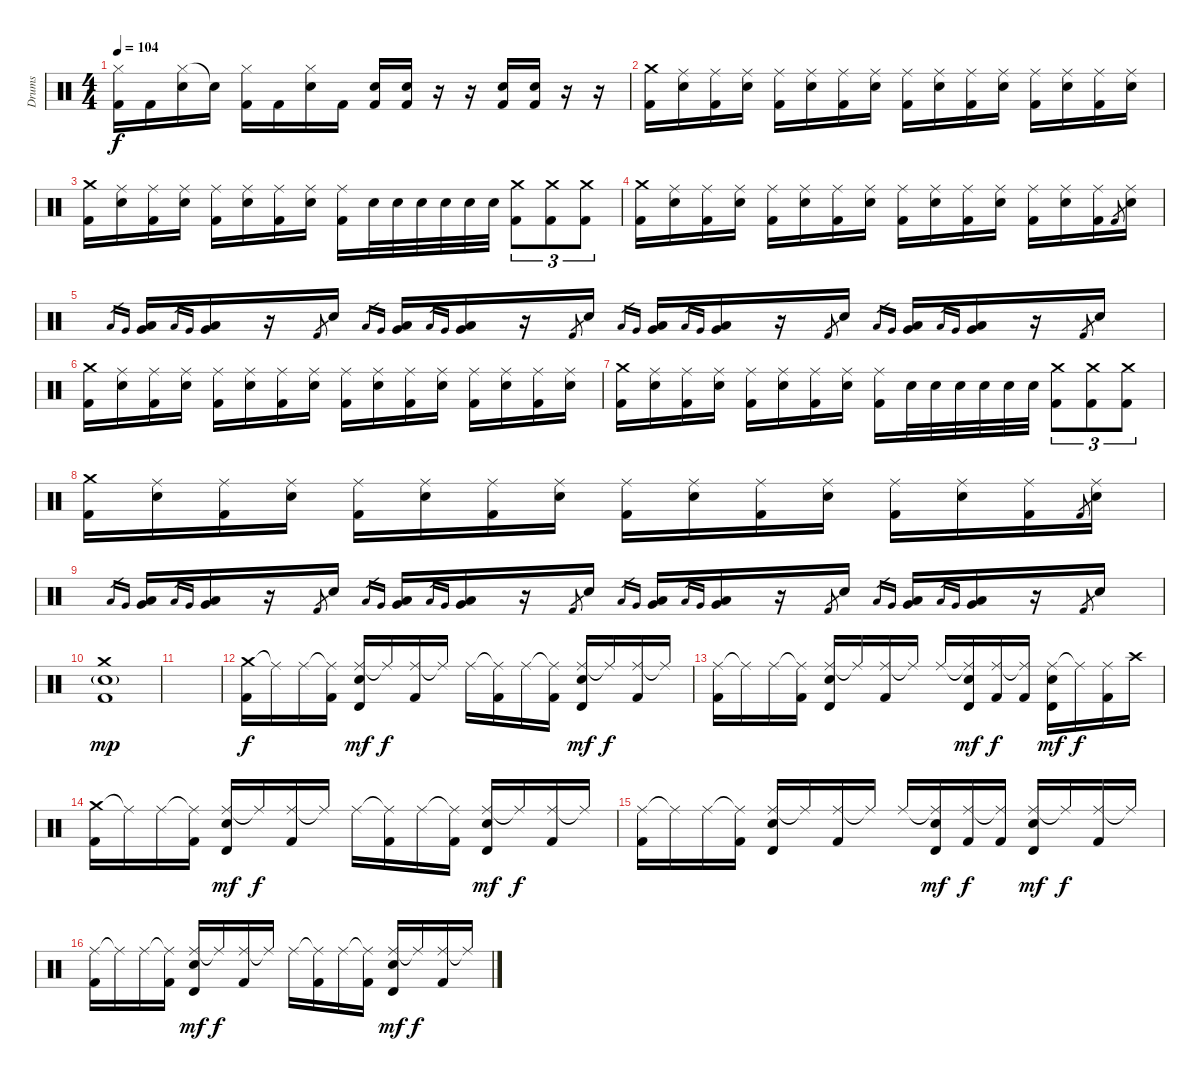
\track ("Drums" "Drums") {instrument percussion}
\staff {score}
\articulation defaults
\ts (4 4)
\tempo 104
\clef neutral
\ks c
("Hi-Hat (closed)" "Kick (hit) 2").16{dy f} "Kick (hit) 2".16 ("Hi-Hat (closed)" "Electric Snare (hit)").16 "Electric Snare (hit)"{t}.16 ("Hi-Hat (closed)" "Kick (hit) 2").16 "Kick (hit) 2".16 ("Hi-Hat (closed)" "Electric Snare (hit)").16 "Kick (hit) 2".16 ("Electric Snare (hit)" "Kick (hit) 2").16 ("Electric Snare (hit)" "Kick (hit) 2").16 r.16 r.16 ("Electric Snare (hit)" "Kick (hit) 2").16 ("Electric Snare (hit)" "Kick (hit) 2").16 r.16 r.16 |
("Crash medium (hit)" "Kick (hit) 2").16 ("Ride (middle)" "Electric Snare (hit)").16 ("Ride (middle)" "Kick (hit) 2").16 ("Ride (middle)" "Electric Snare (hit)").16 ("Ride (middle)" "Kick (hit) 2").16 ("Ride (middle)" "Electric Snare (hit)").16 ("Ride (middle)" "Kick (hit) 2").16 ("Ride (middle)" "Electric Snare (hit)").16 ("Ride (middle)" "Kick (hit) 2").16 ("Ride (middle)" "Electric Snare (hit)").16 ("Ride (middle)" "Kick (hit) 2").16 ("Ride (middle)" "Electric Snare (hit)").16 ("Ride (middle)" "Kick (hit) 2").16 ("Ride (middle)" "Electric Snare (hit)").16 ("Ride (middle)" "Kick (hit) 2").16 ("Ride (middle)" "Electric Snare (hit)").16 |
("Crash medium (hit)" "Kick (hit) 2").16 ("Ride (middle)" "Electric Snare (hit)").16 ("Ride (middle)" "Kick (hit) 2").16 ("Ride (middle)" "Electric Snare (hit)").16 ("Ride (middle)" "Kick (hit) 2").16 ("Ride (middle)" "Electric Snare (hit)").16 ("Ride (middle)" "Kick (hit) 2").16 ("Ride (middle)" "Electric Snare (hit)").16 ("Ride (middle)" "Kick (hit) 2").16 "Electric Snare (hit)".32 "Electric Snare (hit)".32 "Electric Snare (hit)".32 "Electric Snare (hit)".32 "Electric Snare (hit)".32 "Electric Snare (hit)".32 ("Crash medium (hit)" "Kick (hit) 2").8{tu (3 2)} ("Crash medium (hit)" "Kick (hit) 2").8{tu (3 2)} ("Crash medium (hit)" "Kick (hit) 2").8{tu (3 2)} |
("Crash medium (hit)" "Kick (hit) 2").16 ("Ride (middle)" "Electric Snare (hit)").16 ("Ride (middle)" "Kick (hit) 2").16 ("Ride (middle)" "Electric Snare (hit)").16 ("Ride (middle)" "Kick (hit) 2").16 ("Ride (middle)" "Electric Snare (hit)").16 ("Ride (middle)" "Kick (hit) 2").16 ("Ride (middle)" "Electric Snare (hit)").16 ("Ride (middle)" "Kick (hit) 2").16 ("Ride (middle)" "Electric Snare (hit)").16 ("Ride (middle)" "Kick (hit) 2").16 ("Ride (middle)" "Electric Snare (hit)").16 ("Ride (middle)" "Kick (hit) 2").16 ("Ride (middle)" "Electric Snare (hit)").16 ("Ride (middle)" "Kick (hit) 2").16 "Kick (hit) 2".8{gr} ("Ride (middle)" "Electric Snare (hit)").16 |
"Low Floor Tom (hit)".16{gr} "Very Low Tom (hit)".16{gr} ("Very Low Tom (hit)" "Low Tom (hit)").16 "Low Floor Tom (hit)".16{gr} "Very Low Tom (hit)".16{gr} ("Very Low Tom (hit)" "Low Tom (hit)").16 r.16 "Kick (hit) 2".8{gr} "Electric Snare (hit)".16 "Low Floor Tom (hit)".16{gr} "Very Low Tom (hit)".16{gr} ("Very Low Tom (hit)" "Low Tom (hit)").16 "Low Floor Tom (hit)".16{gr} "Very Low Tom (hit)".16{gr} ("Very Low Tom (hit)" "Low Tom (hit)").16 r.16 "Kick (hit) 2".8{gr} "Electric Snare (hit)".16 "Low Floor Tom (hit)".16{gr} "Very Low Tom (hit)".16{gr} ("Very Low Tom (hit)" "Low Tom (hit)").16 "Low Floor Tom (hit)".16{gr} "Very Low Tom (hit)".16{gr} ("Very Low Tom (hit)" "Low Tom (hit)").16 r.16 "Kick (hit) 2".8{gr} "Electric Snare (hit)".16 "Low Floor Tom (hit)".16{gr} "Very Low Tom (hit)".16{gr} ("Very Low Tom (hit)" "Low Tom (hit)").16 "Low Floor Tom (hit)".16{gr} "Very Low Tom (hit)".16{gr} ("Very Low Tom (hit)" "Low Tom (hit)").16 r.16 "Kick (hit) 2".8{gr} "Electric Snare (hit)".16 |
("Crash medium (hit)" "Kick (hit) 2").16 ("Ride (middle)" "Electric Snare (hit)").16 ("Ride (middle)" "Kick (hit) 2").16 ("Ride (middle)" "Electric Snare (hit)").16 ("Ride (middle)" "Kick (hit) 2").16 ("Ride (middle)" "Electric Snare (hit)").16 ("Ride (middle)" "Kick (hit) 2").16 ("Ride (middle)" "Electric Snare (hit)").16 ("Ride (middle)" "Kick (hit) 2").16 ("Ride (middle)" "Electric Snare (hit)").16 ("Ride (middle)" "Kick (hit) 2").16 ("Ride (middle)" "Electric Snare (hit)").16 ("Ride (middle)" "Kick (hit) 2").16 ("Ride (middle)" "Electric Snare (hit)").16 ("Ride (middle)" "Kick (hit) 2").16 ("Ride (middle)" "Electric Snare (hit)").16 |
("Crash medium (hit)" "Kick (hit) 2").16 ("Ride (middle)" "Electric Snare (hit)").16 ("Ride (middle)" "Kick (hit) 2").16 ("Ride (middle)" "Electric Snare (hit)").16 ("Ride (middle)" "Kick (hit) 2").16 ("Ride (middle)" "Electric Snare (hit)").16 ("Ride (middle)" "Kick (hit) 2").16 ("Ride (middle)" "Electric Snare (hit)").16 ("Ride (middle)" "Kick (hit) 2").16 "Electric Snare (hit)".32 "Electric Snare (hit)".32 "Electric Snare (hit)".32 "Electric Snare (hit)".32 "Electric Snare (hit)".32 "Electric Snare (hit)".32 ("Crash medium (hit)" "Kick (hit) 2").8{tu (3 2)} ("Crash medium (hit)" "Kick (hit) 2").8{tu (3 2)} ("Crash medium (hit)" "Kick (hit) 2").8{tu (3 2)} |
("Crash medium (hit)" "Kick (hit) 2").16 ("Ride (middle)" "Electric Snare (hit)").16 ("Ride (middle)" "Kick (hit) 2").16 ("Ride (middle)" "Electric Snare (hit)").16 ("Ride (middle)" "Kick (hit) 2").16 ("Ride (middle)" "Electric Snare (hit)").16 ("Ride (middle)" "Kick (hit) 2").16 ("Ride (middle)" "Electric Snare (hit)").16 ("Ride (middle)" "Kick (hit) 2").16 ("Ride (middle)" "Electric Snare (hit)").16 ("Ride (middle)" "Kick (hit) 2").16 ("Ride (middle)" "Electric Snare (hit)").16 ("Ride (middle)" "Kick (hit) 2").16 ("Ride (middle)" "Electric Snare (hit)").16 ("Ride (middle)" "Kick (hit) 2").16 "Kick (hit) 2".8{gr} ("Ride (middle)" "Electric Snare (hit)").16 |
"Low Floor Tom (hit)".16{gr} "Very Low Tom (hit)".16{gr} ("Very Low Tom (hit)" "Low Tom (hit)").16 "Low Floor Tom (hit)".16{gr} "Very Low Tom (hit)".16{gr} ("Very Low Tom (hit)" "Low Tom (hit)").16 r.16 "Kick (hit) 2".8{gr} "Electric Snare (hit)".16 "Low Floor Tom (hit)".16{gr} "Very Low Tom (hit)".16{gr} ("Very Low Tom (hit)" "Low Tom (hit)").16 "Low Floor Tom (hit)".16{gr} "Very Low Tom (hit)".16{gr} ("Very Low Tom (hit)" "Low Tom (hit)").16 r.16 "Kick (hit) 2".8{gr} "Electric Snare (hit)".16 "Low Floor Tom (hit)".16{gr} "Very Low Tom (hit)".16{gr} ("Very Low Tom (hit)" "Low Tom (hit)").16 "Low Floor Tom (hit)".16{gr} "Very Low Tom (hit)".16{gr} ("Very Low Tom (hit)" "Low Tom (hit)").16 r.16 "Kick (hit) 2".8{gr} "Electric Snare (hit)".16 "Low Floor Tom (hit)".16{gr} "Very Low Tom (hit)".16{gr} ("Very Low Tom (hit)" "Low Tom (hit)").16 "Low Floor Tom (hit)".16{gr} "Very Low Tom (hit)".16{gr} ("Very Low Tom (hit)" "Low Tom (hit)").16 r.16 "Kick (hit) 2".8{gr} "Electric Snare (hit)".16 |
("Crash medium (hit)" "Electric Snare (hit)"{g} "Kick (hit) 2").1{dy mp} |
|
("Crash medium (hit)" "Kick (hit) 2").16{dy f} "Ride (middle)"{t}.16 "Ride (middle)".16 ("Ride (middle)"{t} "Kick (hit) 2").16 ("Ride (middle)" "Electric Snare (hit)" "Timbale high (hit)").16{dy mf} "Ride (middle)"{t}.16{dy f} ("Ride (middle)" "Kick (hit) 2").16 "Ride (middle)"{t}.16 "Ride (middle)".16 ("Ride (middle)"{t} "Kick (hit) 2").16 "Ride (middle)".16 ("Ride (middle)"{t} "Kick (hit) 2").16 ("Ride (middle)" "Electric Snare (hit)" "Timbale high (hit)").16{dy mf} "Ride (middle)"{t}.16{dy f} ("Ride (middle)" "Kick (hit) 2").16 "Ride (middle)"{t}.16 |
("Ride (middle)" "Kick (hit) 2").16 "Ride (middle)"{t}.16 "Ride (middle)".16 ("Ride (middle)"{t} "Kick (hit) 2").16 ("Ride (middle)" "Electric Snare (hit)" "Timbale high (hit)").16 "Ride (middle)"{t}.16 ("Ride (middle)" "Kick (hit) 2").16 "Ride (middle)"{t}.16 "Ride (middle)".16 ("Ride (middle)"{t} "Electric Snare (hit)" "Timbale high (hit)").16{dy mf} ("Ride (middle)" "Kick (hit) 2").16{dy f} ("Ride (middle)"{t} "Kick (hit) 2").16 ("Ride (middle)" "Electric Snare (hit)" "Timbale high (hit)").16{dy mf} "Ride (middle)"{t}.16{dy f} ("Ride (middle)" "Kick (hit) 2").16 "Crash high (hit)".16 |
("Crash medium (hit)" "Kick (hit) 2").16 "Ride (middle)"{t}.16 "Ride (middle)".16 ("Ride (middle)"{t} "Kick (hit) 2").16 ("Ride (middle)" "Electric Snare (hit)" "Timbale high (hit)").16{dy mf} "Ride (middle)"{t}.16{dy f} ("Ride (middle)" "Kick (hit) 2").16 "Ride (middle)"{t}.16 "Ride (middle)".16 ("Ride (middle)"{t} "Kick (hit) 2").16 "Ride (middle)".16 ("Ride (middle)"{t} "Kick (hit) 2").16 ("Ride (middle)" "Electric Snare (hit)" "Timbale high (hit)").16{dy mf} "Ride (middle)"{t}.16{dy f} ("Ride (middle)" "Kick (hit) 2").16 "Ride (middle)"{t}.16 |
("Ride (middle)" "Kick (hit) 2").16 "Ride (middle)"{t}.16 "Ride (middle)".16 ("Ride (middle)"{t} "Kick (hit) 2").16 ("Ride (middle)" "Electric Snare (hit)" "Timbale high (hit)").16 "Ride (middle)"{t}.16 ("Ride (middle)" "Kick (hit) 2").16 "Ride (middle)"{t}.16 "Ride (middle)".16 ("Ride (middle)"{t} "Electric Snare (hit)" "Timbale high (hit)").16{dy mf} ("Ride (middle)" "Kick (hit) 2").16{dy f} ("Ride (middle)"{t} "Kick (hit) 2").16 ("Ride (middle)" "Electric Snare (hit)" "Timbale high (hit)").16{dy mf} "Ride (middle)"{t}.16{dy f} ("Ride (middle)" "Kick (hit) 2").16 "Ride (middle)"{t}.16 |
("Ride (middle)" "Kick (hit) 2").16 "Ride (middle)"{t}.16 "Ride (middle)".16 ("Ride (middle)"{t} "Kick (hit) 2").16 ("Ride (middle)" "Electric Snare (hit)" "Timbale high (hit)").16{dy mf} "Ride (middle)"{t}.16{dy f} ("Ride (middle)" "Kick (hit) 2").16 "Ride (middle)"{t}.16 "Ride (middle)".16 ("Ride (middle)"{t} "Kick (hit) 2").16 "Ride (middle)".16 ("Ride (middle)"{t} "Kick (hit) 2").16 ("Ride (middle)" "Electric Snare (hit)" "Timbale high (hit)").16{dy mf} "Ride (middle)"{t}.16{dy f} ("Ride (middle)" "Kick (hit) 2").16 "Ride (middle)"{t}.16
